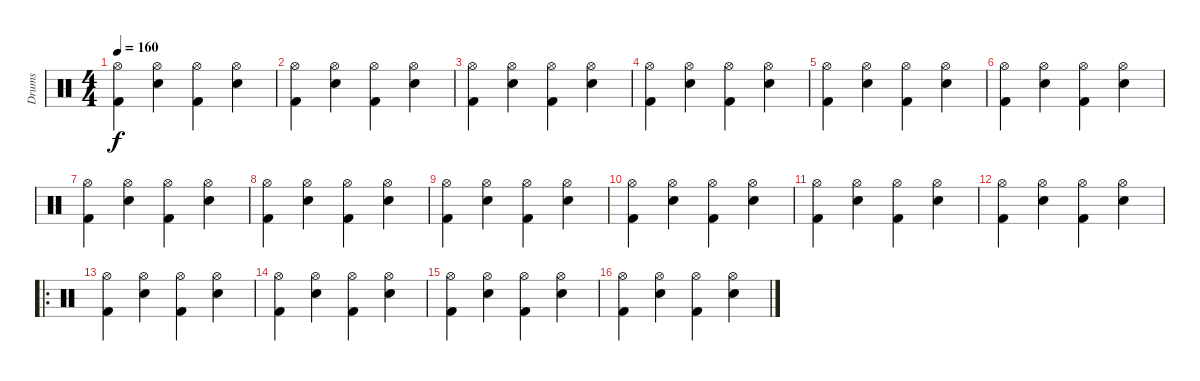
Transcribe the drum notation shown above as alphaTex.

\track ("Drums" "Drums") {instrument percussion}
\staff {score}
\articulation defaults
\ts (4 4)
\tempo 160
\clef neutral
\ks c
("Hi-Hat (open)" "Kick (hit) 2").4{dy f} ("Hi-Hat (open)" "Electric Snare (hit)").4 ("Hi-Hat (open)" "Kick (hit) 2").4 ("Hi-Hat (open)" "Electric Snare (hit)").4 |
("Hi-Hat (open)" "Kick (hit) 2").4 ("Hi-Hat (open)" "Electric Snare (hit)").4 ("Hi-Hat (open)" "Kick (hit) 2").4 ("Hi-Hat (open)" "Electric Snare (hit)").4 |
("Hi-Hat (open)" "Kick (hit) 2").4 ("Hi-Hat (open)" "Electric Snare (hit)").4 ("Hi-Hat (open)" "Kick (hit) 2").4 ("Hi-Hat (open)" "Electric Snare (hit)").4 |
("Hi-Hat (open)" "Kick (hit) 2").4 ("Hi-Hat (open)" "Electric Snare (hit)").4 ("Hi-Hat (open)" "Kick (hit) 2").4 ("Hi-Hat (open)" "Electric Snare (hit)").4 |
("Hi-Hat (open)" "Kick (hit) 2").4 ("Hi-Hat (open)" "Electric Snare (hit)").4 ("Hi-Hat (open)" "Kick (hit) 2").4 ("Hi-Hat (open)" "Electric Snare (hit)").4 |
("Hi-Hat (open)" "Kick (hit) 2").4 ("Hi-Hat (open)" "Electric Snare (hit)").4 ("Hi-Hat (open)" "Kick (hit) 2").4 ("Hi-Hat (open)" "Electric Snare (hit)").4 |
("Hi-Hat (open)" "Kick (hit) 2").4 ("Hi-Hat (open)" "Electric Snare (hit)").4 ("Hi-Hat (open)" "Kick (hit) 2").4 ("Hi-Hat (open)" "Electric Snare (hit)").4 |
("Hi-Hat (open)" "Kick (hit) 2").4 ("Hi-Hat (open)" "Electric Snare (hit)").4 ("Hi-Hat (open)" "Kick (hit) 2").4 ("Hi-Hat (open)" "Electric Snare (hit)").4 |
("Hi-Hat (open)" "Kick (hit) 2").4 ("Hi-Hat (open)" "Electric Snare (hit)").4 ("Hi-Hat (open)" "Kick (hit) 2").4 ("Hi-Hat (open)" "Electric Snare (hit)").4 |
("Hi-Hat (open)" "Kick (hit) 2").4 ("Hi-Hat (open)" "Electric Snare (hit)").4 ("Hi-Hat (open)" "Kick (hit) 2").4 ("Hi-Hat (open)" "Electric Snare (hit)").4 |
("Hi-Hat (open)" "Kick (hit) 2").4 ("Hi-Hat (open)" "Electric Snare (hit)").4 ("Hi-Hat (open)" "Kick (hit) 2").4 ("Hi-Hat (open)" "Electric Snare (hit)").4 |
("Hi-Hat (open)" "Kick (hit) 2").4 ("Hi-Hat (open)" "Electric Snare (hit)").4 ("Hi-Hat (open)" "Kick (hit) 2").4 ("Hi-Hat (open)" "Electric Snare (hit)").4 |
\ro
("Hi-Hat (open)" "Kick (hit) 2").4 ("Hi-Hat (open)" "Electric Snare (hit)").4 ("Hi-Hat (open)" "Kick (hit) 2").4 ("Hi-Hat (open)" "Electric Snare (hit)").4 |
("Hi-Hat (open)" "Kick (hit) 2").4 ("Hi-Hat (open)" "Electric Snare (hit)").4 ("Hi-Hat (open)" "Kick (hit) 2").4 ("Hi-Hat (open)" "Electric Snare (hit)").4 |
("Hi-Hat (open)" "Kick (hit) 2").4 ("Hi-Hat (open)" "Electric Snare (hit)").4 ("Hi-Hat (open)" "Kick (hit) 2").4 ("Hi-Hat (open)" "Electric Snare (hit)").4 |
("Hi-Hat (open)" "Kick (hit) 2").4 ("Hi-Hat (open)" "Electric Snare (hit)").4 ("Hi-Hat (open)" "Kick (hit) 2").4 ("Hi-Hat (open)" "Electric Snare (hit)").4
